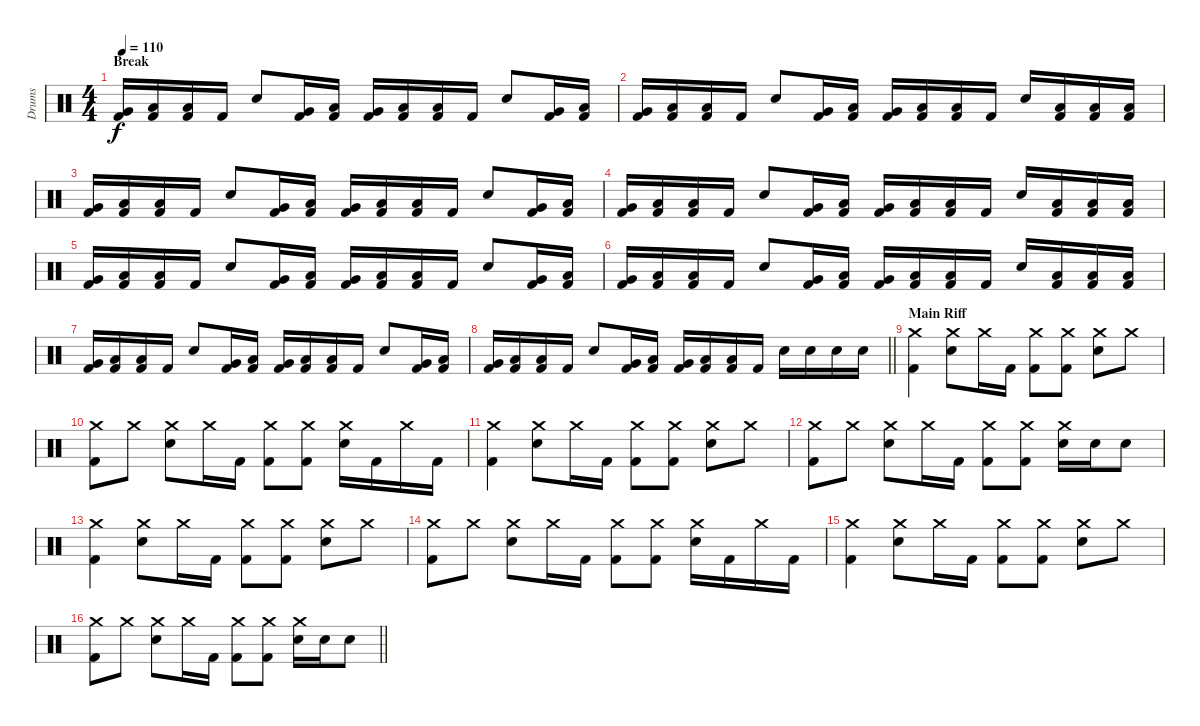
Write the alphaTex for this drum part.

\track ("Drums" "Drums") {instrument percussion}
\staff {score}
\articulation defaults
\ts (4 4)
\section ("" "Break")
\tempo 110
\clef neutral
\ks c
("Very Low Tom (hit)" "Kick (hit) 2").16{dy f} ("Low Floor Tom (hit)" "Kick (hit) 2").16 ("Low Floor Tom (hit)" "Kick (hit) 2").16 "Kick (hit) 2".16 "Electric Snare (hit)".8 ("Very Low Tom (hit)" "Kick (hit) 2").16 ("Low Floor Tom (hit)" "Kick (hit) 2").16 ("Very Low Tom (hit)" "Kick (hit) 2").16 ("Low Floor Tom (hit)" "Kick (hit) 2").16 ("Low Floor Tom (hit)" "Kick (hit) 2").16 "Kick (hit) 2".16 "Electric Snare (hit)".8 ("Very Low Tom (hit)" "Kick (hit) 2").16 ("Low Floor Tom (hit)" "Kick (hit) 2").16 |
("Very Low Tom (hit)" "Kick (hit) 2").16 ("Low Floor Tom (hit)" "Kick (hit) 2").16 ("Low Floor Tom (hit)" "Kick (hit) 2").16 "Kick (hit) 2".16 "Electric Snare (hit)".8 ("Very Low Tom (hit)" "Kick (hit) 2").16 ("Low Floor Tom (hit)" "Kick (hit) 2").16 ("Very Low Tom (hit)" "Kick (hit) 2").16 ("Low Floor Tom (hit)" "Kick (hit) 2").16 ("Low Floor Tom (hit)" "Kick (hit) 2").16 "Kick (hit) 2".16 "Electric Snare (hit)".16 ("Low Floor Tom (hit)" "Kick (hit) 2").16 ("Low Floor Tom (hit)" "Kick (hit) 2").16 ("Low Floor Tom (hit)" "Kick (hit) 2").16 |
("Very Low Tom (hit)" "Kick (hit) 2").16 ("Low Floor Tom (hit)" "Kick (hit) 2").16 ("Low Floor Tom (hit)" "Kick (hit) 2").16 "Kick (hit) 2".16 "Electric Snare (hit)".8 ("Very Low Tom (hit)" "Kick (hit) 2").16 ("Low Floor Tom (hit)" "Kick (hit) 2").16 ("Very Low Tom (hit)" "Kick (hit) 2").16 ("Low Floor Tom (hit)" "Kick (hit) 2").16 ("Low Floor Tom (hit)" "Kick (hit) 2").16 "Kick (hit) 2".16 "Electric Snare (hit)".8 ("Very Low Tom (hit)" "Kick (hit) 2").16 ("Low Floor Tom (hit)" "Kick (hit) 2").16 |
("Very Low Tom (hit)" "Kick (hit) 2").16 ("Low Floor Tom (hit)" "Kick (hit) 2").16 ("Low Floor Tom (hit)" "Kick (hit) 2").16 "Kick (hit) 2".16 "Electric Snare (hit)".8 ("Very Low Tom (hit)" "Kick (hit) 2").16 ("Low Floor Tom (hit)" "Kick (hit) 2").16 ("Very Low Tom (hit)" "Kick (hit) 2").16 ("Low Floor Tom (hit)" "Kick (hit) 2").16 ("Low Floor Tom (hit)" "Kick (hit) 2").16 "Kick (hit) 2".16 "Electric Snare (hit)".16 ("Low Floor Tom (hit)" "Kick (hit) 2").16 ("Low Floor Tom (hit)" "Kick (hit) 2").16 ("Low Floor Tom (hit)" "Kick (hit) 2").16 |
("Very Low Tom (hit)" "Kick (hit) 2").16 ("Low Floor Tom (hit)" "Kick (hit) 2").16 ("Low Floor Tom (hit)" "Kick (hit) 2").16 "Kick (hit) 2".16 "Electric Snare (hit)".8 ("Very Low Tom (hit)" "Kick (hit) 2").16 ("Low Floor Tom (hit)" "Kick (hit) 2").16 ("Very Low Tom (hit)" "Kick (hit) 2").16 ("Low Floor Tom (hit)" "Kick (hit) 2").16 ("Low Floor Tom (hit)" "Kick (hit) 2").16 "Kick (hit) 2".16 "Electric Snare (hit)".8 ("Very Low Tom (hit)" "Kick (hit) 2").16 ("Low Floor Tom (hit)" "Kick (hit) 2").16 |
("Very Low Tom (hit)" "Kick (hit) 2").16 ("Low Floor Tom (hit)" "Kick (hit) 2").16 ("Low Floor Tom (hit)" "Kick (hit) 2").16 "Kick (hit) 2".16 "Electric Snare (hit)".8 ("Very Low Tom (hit)" "Kick (hit) 2").16 ("Low Floor Tom (hit)" "Kick (hit) 2").16 ("Very Low Tom (hit)" "Kick (hit) 2").16 ("Low Floor Tom (hit)" "Kick (hit) 2").16 ("Low Floor Tom (hit)" "Kick (hit) 2").16 "Kick (hit) 2".16 "Electric Snare (hit)".16 ("Low Floor Tom (hit)" "Kick (hit) 2").16 ("Low Floor Tom (hit)" "Kick (hit) 2").16 ("Low Floor Tom (hit)" "Kick (hit) 2").16 |
("Very Low Tom (hit)" "Kick (hit) 2").16 ("Low Floor Tom (hit)" "Kick (hit) 2").16 ("Low Floor Tom (hit)" "Kick (hit) 2").16 "Kick (hit) 2".16 "Electric Snare (hit)".8 ("Very Low Tom (hit)" "Kick (hit) 2").16 ("Low Floor Tom (hit)" "Kick (hit) 2").16 ("Very Low Tom (hit)" "Kick (hit) 2").16 ("Low Floor Tom (hit)" "Kick (hit) 2").16 ("Low Floor Tom (hit)" "Kick (hit) 2").16 "Kick (hit) 2".16 "Electric Snare (hit)".8 ("Very Low Tom (hit)" "Kick (hit) 2").16 ("Low Floor Tom (hit)" "Kick (hit) 2").16 |
\barLineRight lightlight
("Very Low Tom (hit)" "Kick (hit) 2").16 ("Low Floor Tom (hit)" "Kick (hit) 2").16 ("Low Floor Tom (hit)" "Kick (hit) 2").16 "Kick (hit) 2".16 "Electric Snare (hit)".8 ("Very Low Tom (hit)" "Kick (hit) 2").16 ("Low Floor Tom (hit)" "Kick (hit) 2").16 ("Very Low Tom (hit)" "Kick (hit) 2").16 ("Low Floor Tom (hit)" "Kick (hit) 2").16 ("Low Floor Tom (hit)" "Kick (hit) 2").16 "Kick (hit) 2".16 "Electric Snare (hit)".16 "Electric Snare (hit)".16 "Electric Snare (hit)".16 "Electric Snare (hit)".16 |
\section ("" "Main Riff")
("Crash medium (hit)" "Kick (hit) 2").4 ("Crash medium (hit)" "Electric Snare (hit)").8 "Crash medium (hit)".16 "Kick (hit) 2".16 ("Crash medium (hit)" "Kick (hit) 2").8 ("Crash medium (hit)" "Kick (hit) 2").8 ("Crash medium (hit)" "Electric Snare (hit)").8 "Crash medium (hit)".8 |
("Crash medium (hit)" "Kick (hit) 2").8 "Crash medium (hit)".8 ("Crash medium (hit)" "Electric Snare (hit)").8 "Crash medium (hit)".16 "Kick (hit) 2".16 ("Crash medium (hit)" "Kick (hit) 2").8 ("Crash medium (hit)" "Kick (hit) 2").8 ("Crash medium (hit)" "Electric Snare (hit)").16 "Kick (hit) 2".16 "Crash medium (hit)".16 "Kick (hit) 2".16 |
("Crash medium (hit)" "Kick (hit) 2").4 ("Crash medium (hit)" "Electric Snare (hit)").8 "Crash medium (hit)".16 "Kick (hit) 2".16 ("Crash medium (hit)" "Kick (hit) 2").8 ("Crash medium (hit)" "Kick (hit) 2").8 ("Crash medium (hit)" "Electric Snare (hit)").8 "Crash medium (hit)".8 |
("Crash medium (hit)" "Kick (hit) 2").8 "Crash medium (hit)".8 ("Crash medium (hit)" "Electric Snare (hit)").8 "Crash medium (hit)".16 "Kick (hit) 2".16 ("Crash medium (hit)" "Kick (hit) 2").8 ("Crash medium (hit)" "Kick (hit) 2").8 ("Crash medium (hit)" "Electric Snare (hit)").16 "Electric Snare (hit)".16 "Electric Snare (hit)".8 |
("Crash medium (hit)" "Kick (hit) 2").4 ("Crash medium (hit)" "Electric Snare (hit)").8 "Crash medium (hit)".16 "Kick (hit) 2".16 ("Crash medium (hit)" "Kick (hit) 2").8 ("Crash medium (hit)" "Kick (hit) 2").8 ("Crash medium (hit)" "Electric Snare (hit)").8 "Crash medium (hit)".8 |
("Crash medium (hit)" "Kick (hit) 2").8 "Crash medium (hit)".8 ("Crash medium (hit)" "Electric Snare (hit)").8 "Crash medium (hit)".16 "Kick (hit) 2".16 ("Crash medium (hit)" "Kick (hit) 2").8 ("Crash medium (hit)" "Kick (hit) 2").8 ("Crash medium (hit)" "Electric Snare (hit)").16 "Kick (hit) 2".16 "Crash medium (hit)".16 "Kick (hit) 2".16 |
("Crash medium (hit)" "Kick (hit) 2").4 ("Crash medium (hit)" "Electric Snare (hit)").8 "Crash medium (hit)".16 "Kick (hit) 2".16 ("Crash medium (hit)" "Kick (hit) 2").8 ("Crash medium (hit)" "Kick (hit) 2").8 ("Crash medium (hit)" "Electric Snare (hit)").8 "Crash medium (hit)".8 |
\barLineRight lightlight
("Crash medium (hit)" "Kick (hit) 2").8 "Crash medium (hit)".8 ("Crash medium (hit)" "Electric Snare (hit)").8 "Crash medium (hit)".16 "Kick (hit) 2".16 ("Crash medium (hit)" "Kick (hit) 2").8 ("Crash medium (hit)" "Kick (hit) 2").8 ("Crash medium (hit)" "Electric Snare (hit)").16 "Electric Snare (hit)".16 "Electric Snare (hit)".8
